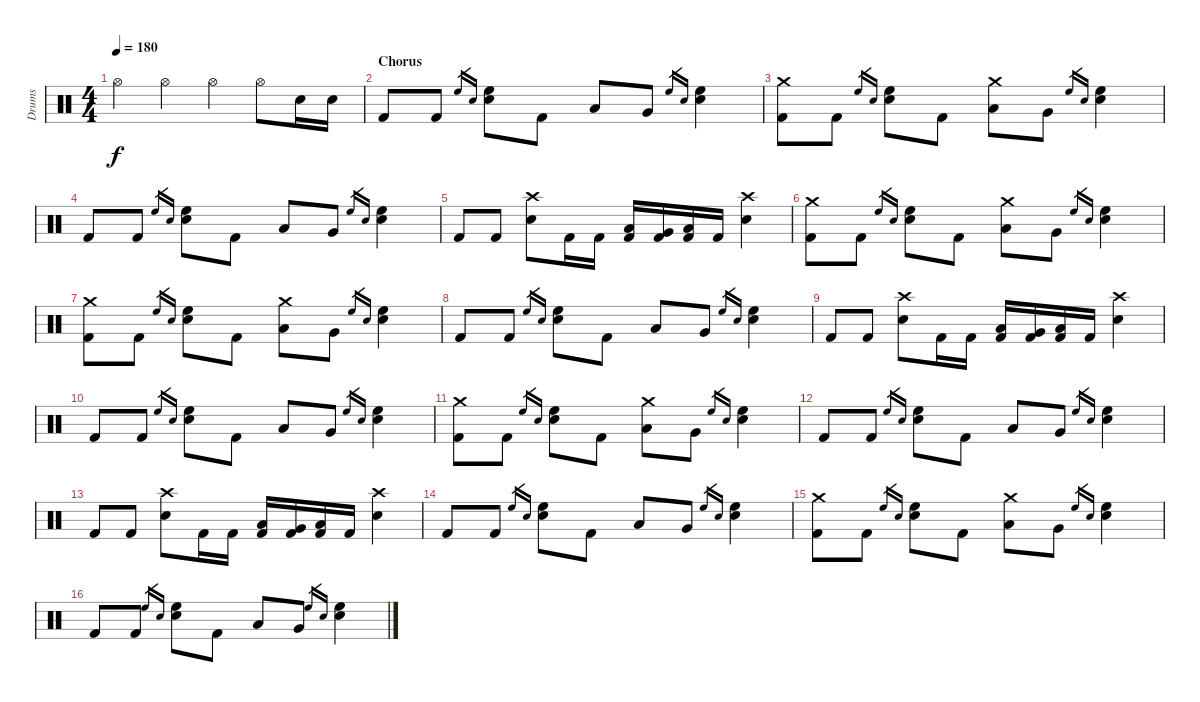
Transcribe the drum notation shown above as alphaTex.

\track ("Drums" "Drums") {instrument percussion}
\staff {score}
\articulation defaults
\ts (4 4)
\tempo 180
\clef neutral
\ks c "Hi-Hat (open)".4{dy f} "Hi-Hat (open)".4 "Hi-Hat (open)".4 "Hi-Hat (open)".8 "Snare (hit) 2".16 "Snare (hit) 2".16
|
\section ("" "Chorus")
"Kick (hit) 2".8 "Kick (hit) 2".8 "High Floor Tom (hit)".16{gr} "Electric Snare (hit)".16{gr} ("High Floor Tom (hit)" "Electric Snare (hit)").8 "Kick (hit) 2".8 "Low Tom (hit)".8 "Very Low Tom (hit)".8 "High Floor Tom (hit)".16{gr} "Electric Snare (hit)".16{gr} ("High Floor Tom (hit)" "Electric Snare (hit)").4 |
("Crash medium (hit)" "Kick (hit) 2").8 "Kick (hit) 2".8 "High Floor Tom (hit)".16{gr} "Electric Snare (hit)".16{gr} ("High Floor Tom (hit)" "Electric Snare (hit)").8 "Kick (hit) 2".8 ("Crash medium (hit)" "Low Tom (hit)").8 "Very Low Tom (hit)".8 "High Floor Tom (hit)".16{gr} "Electric Snare (hit)".16{gr} ("High Floor Tom (hit)" "Electric Snare (hit)").4 |
"Kick (hit) 2".8 "Kick (hit) 2".8 "High Floor Tom (hit)".16{gr} "Electric Snare (hit)".16{gr} ("High Floor Tom (hit)" "Electric Snare (hit)").8 "Kick (hit) 2".8 "Low Tom (hit)".8 "Very Low Tom (hit)".8 "High Floor Tom (hit)".16{gr} "Electric Snare (hit)".16{gr} ("High Floor Tom (hit)" "Electric Snare (hit)").4 |
"Kick (hit) 2".8 "Kick (hit) 2".8 ("Crash high (hit)" "Electric Snare (hit)").8 "Kick (hit) 2".16 "Kick (hit) 2".16 ("Low Tom (hit)" "Kick (hit) 2").16 ("Very Low Tom (hit)" "Kick (hit) 2").16 ("Low Floor Tom (hit)" "Kick (hit) 2").16 "Kick (hit) 2".16 ("Crash high (hit)" "Electric Snare (hit)").4 |
("Crash medium (hit)" "Kick (hit) 2").8 "Kick (hit) 2".8 "High Floor Tom (hit)".16{gr} "Electric Snare (hit)".16{gr} ("High Floor Tom (hit)" "Electric Snare (hit)").8 "Kick (hit) 2".8 ("Crash medium (hit)" "Low Tom (hit)").8 "Very Low Tom (hit)".8 "High Floor Tom (hit)".16{gr} "Electric Snare (hit)".16{gr} ("High Floor Tom (hit)" "Electric Snare (hit)").4 |
("Crash medium (hit)" "Kick (hit) 2").8 "Kick (hit) 2".8 "High Floor Tom (hit)".16{gr} "Electric Snare (hit)".16{gr} ("High Floor Tom (hit)" "Electric Snare (hit)").8 "Kick (hit) 2".8 ("Crash medium (hit)" "Low Tom (hit)").8 "Very Low Tom (hit)".8 "High Floor Tom (hit)".16{gr} "Electric Snare (hit)".16{gr} ("High Floor Tom (hit)" "Electric Snare (hit)").4 |
"Kick (hit) 2".8 "Kick (hit) 2".8 "High Floor Tom (hit)".16{gr} "Electric Snare (hit)".16{gr} ("High Floor Tom (hit)" "Electric Snare (hit)").8 "Kick (hit) 2".8 "Low Tom (hit)".8 "Very Low Tom (hit)".8 "High Floor Tom (hit)".16{gr} "Electric Snare (hit)".16{gr} ("High Floor Tom (hit)" "Electric Snare (hit)").4 |
"Kick (hit) 2".8 "Kick (hit) 2".8 ("Crash high (hit)" "Electric Snare (hit)").8 "Kick (hit) 2".16 "Kick (hit) 2".16 ("Low Tom (hit)" "Kick (hit) 2").16 ("Very Low Tom (hit)" "Kick (hit) 2").16 ("Low Floor Tom (hit)" "Kick (hit) 2").16 "Kick (hit) 2".16 ("Crash high (hit)" "Electric Snare (hit)").4 |
"Kick (hit) 2".8 "Kick (hit) 2".8 "High Floor Tom (hit)".16{gr} "Electric Snare (hit)".16{gr} ("High Floor Tom (hit)" "Electric Snare (hit)").8 "Kick (hit) 2".8 "Low Tom (hit)".8 "Very Low Tom (hit)".8 "High Floor Tom (hit)".16{gr} "Electric Snare (hit)".16{gr} ("High Floor Tom (hit)" "Electric Snare (hit)").4 |
("Crash medium (hit)" "Kick (hit) 2").8 "Kick (hit) 2".8 "High Floor Tom (hit)".16{gr} "Electric Snare (hit)".16{gr} ("High Floor Tom (hit)" "Electric Snare (hit)").8 "Kick (hit) 2".8 ("Crash medium (hit)" "Low Tom (hit)").8 "Very Low Tom (hit)".8 "High Floor Tom (hit)".16{gr} "Electric Snare (hit)".16{gr} ("High Floor Tom (hit)" "Electric Snare (hit)").4 |
"Kick (hit) 2".8 "Kick (hit) 2".8 "High Floor Tom (hit)".16{gr} "Electric Snare (hit)".16{gr} ("High Floor Tom (hit)" "Electric Snare (hit)").8 "Kick (hit) 2".8 "Low Tom (hit)".8 "Very Low Tom (hit)".8 "High Floor Tom (hit)".16{gr} "Electric Snare (hit)".16{gr} ("High Floor Tom (hit)" "Electric Snare (hit)").4 |
"Kick (hit) 2".8 "Kick (hit) 2".8 ("Crash high (hit)" "Electric Snare (hit)").8 "Kick (hit) 2".16 "Kick (hit) 2".16 ("Low Tom (hit)" "Kick (hit) 2").16 ("Very Low Tom (hit)" "Kick (hit) 2").16 ("Low Floor Tom (hit)" "Kick (hit) 2").16 "Kick (hit) 2".16 ("Crash high (hit)" "Electric Snare (hit)").4 |
"Kick (hit) 2".8 "Kick (hit) 2".8 "High Floor Tom (hit)".16{gr} "Electric Snare (hit)".16{gr} ("High Floor Tom (hit)" "Electric Snare (hit)").8 "Kick (hit) 2".8 "Low Tom (hit)".8 "Very Low Tom (hit)".8 "High Floor Tom (hit)".16{gr} "Electric Snare (hit)".16{gr} ("High Floor Tom (hit)" "Electric Snare (hit)").4 |
("Crash medium (hit)" "Kick (hit) 2").8 "Kick (hit) 2".8 "High Floor Tom (hit)".16{gr} "Electric Snare (hit)".16{gr} ("High Floor Tom (hit)" "Electric Snare (hit)").8 "Kick (hit) 2".8 ("Crash medium (hit)" "Low Tom (hit)").8 "Very Low Tom (hit)".8 "High Floor Tom (hit)".16{gr} "Electric Snare (hit)".16{gr} ("High Floor Tom (hit)" "Electric Snare (hit)").4 |
"Kick (hit) 2".8 "Kick (hit) 2".8 "High Floor Tom (hit)".16{gr} "Electric Snare (hit)".16{gr} ("High Floor Tom (hit)" "Electric Snare (hit)").8 "Kick (hit) 2".8 "Low Tom (hit)".8 "Very Low Tom (hit)".8 "High Floor Tom (hit)".16{gr} "Electric Snare (hit)".16{gr} ("High Floor Tom (hit)" "Electric Snare (hit)").4
